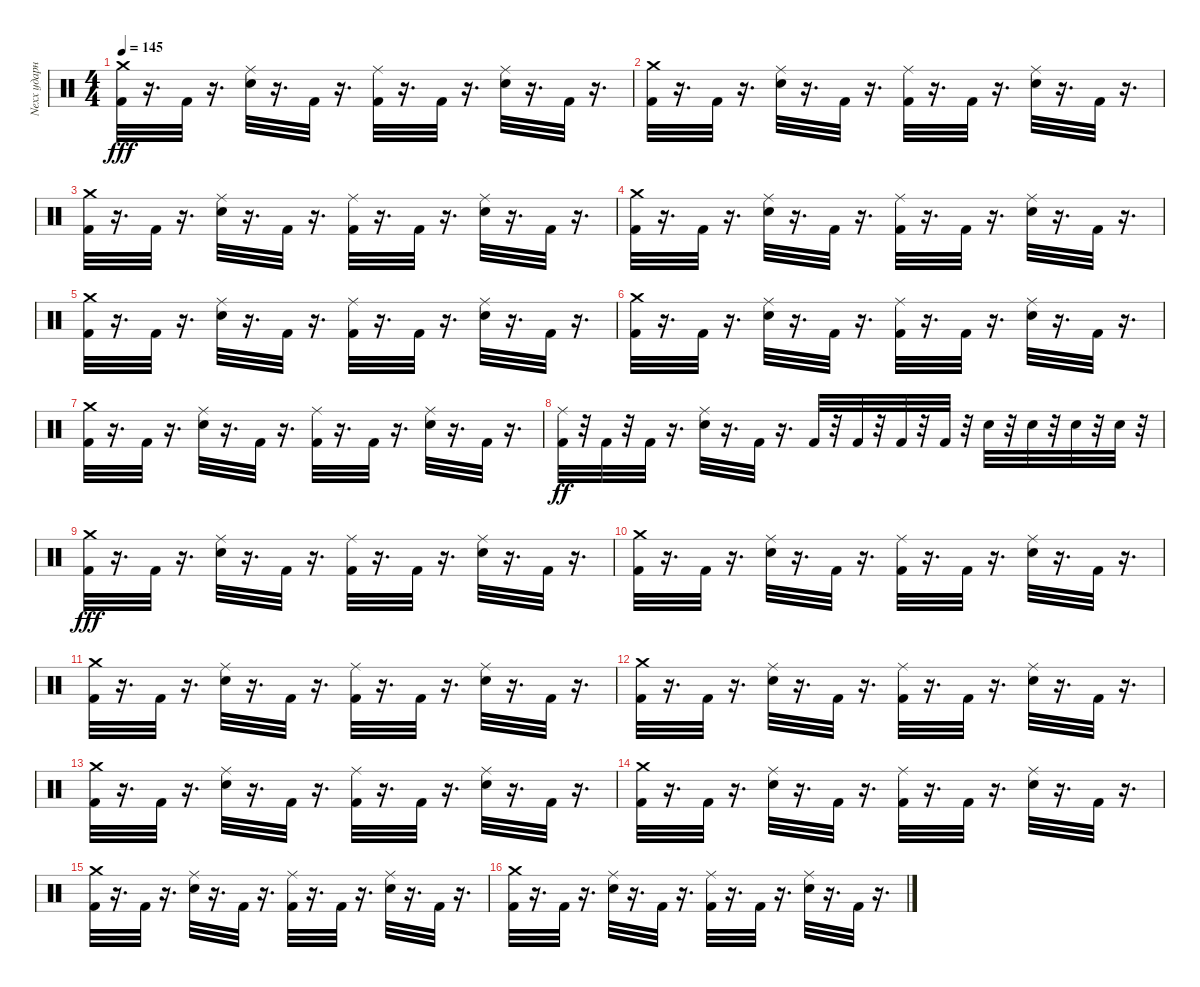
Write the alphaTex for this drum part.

\track ("Nexx ударные" "Nexx ударн") {instrument percussion}
\staff {score}
\articulation defaults
\ts (4 4)
\tempo 145
\clef neutral
\ks c
("Crash medium (hit)" "Kick (hit) 2").32{dy fff} r.16{d} "Kick (hit) 2".32 r.16{d} ("Ride (middle)" "Snare (hit) 2").32 r.16{d} "Kick (hit) 2".32 r.16{d} ("Kick (hit) 2" "Ride (middle)").32 r.16{d} "Kick (hit) 2".32 r.16{d} ("Snare (hit) 2" "Ride (middle)").32 r.16{d} "Kick (hit) 2".32 r.16{d} |
("Crash medium (hit)" "Kick (hit) 2").32 r.16{d} "Kick (hit) 2".32 r.16{d} ("Ride (middle)" "Snare (hit) 2").32 r.16{d} "Kick (hit) 2".32 r.16{d} ("Kick (hit) 2" "Ride (middle)").32 r.16{d} "Kick (hit) 2".32 r.16{d} ("Snare (hit) 2" "Ride (middle)").32 r.16{d} "Kick (hit) 2".32 r.16{d} |
("Crash medium (hit)" "Kick (hit) 2").32 r.16{d} "Kick (hit) 2".32 r.16{d} ("Ride (middle)" "Snare (hit) 2").32 r.16{d} "Kick (hit) 2".32 r.16{d} ("Kick (hit) 2" "Ride (middle)").32 r.16{d} "Kick (hit) 2".32 r.16{d} ("Snare (hit) 2" "Ride (middle)").32 r.16{d} "Kick (hit) 2".32 r.16{d} |
("Crash medium (hit)" "Kick (hit) 2").32 r.16{d} "Kick (hit) 2".32 r.16{d} ("Ride (middle)" "Snare (hit) 2").32 r.16{d} "Kick (hit) 2".32 r.16{d} ("Kick (hit) 2" "Ride (middle)").32 r.16{d} "Kick (hit) 2".32 r.16{d} ("Snare (hit) 2" "Ride (middle)").32 r.16{d} "Kick (hit) 2".32 r.16{d} |
("Crash medium (hit)" "Kick (hit) 2").32 r.16{d} "Kick (hit) 2".32 r.16{d} ("Ride (middle)" "Snare (hit) 2").32 r.16{d} "Kick (hit) 2".32 r.16{d} ("Kick (hit) 2" "Ride (middle)").32 r.16{d} "Kick (hit) 2".32 r.16{d} ("Snare (hit) 2" "Ride (middle)").32 r.16{d} "Kick (hit) 2".32 r.16{d} |
("Crash medium (hit)" "Kick (hit) 2").32 r.16{d} "Kick (hit) 2".32 r.16{d} ("Ride (middle)" "Snare (hit) 2").32 r.16{d} "Kick (hit) 2".32 r.16{d} ("Kick (hit) 2" "Ride (middle)").32 r.16{d} "Kick (hit) 2".32 r.16{d} ("Snare (hit) 2" "Ride (middle)").32 r.16{d} "Kick (hit) 2".32 r.16{d} |
("Crash medium (hit)" "Kick (hit) 2").32 r.16{d} "Kick (hit) 2".32 r.16{d} ("Ride (middle)" "Snare (hit) 2").32 r.16{d} "Kick (hit) 2".32 r.16{d} ("Kick (hit) 2" "Ride (middle)").32 r.16{d} "Kick (hit) 2".32 r.16{d} ("Snare (hit) 2" "Ride (middle)").32 r.16{d} "Kick (hit) 2".32 r.16{d} |
("Ride (middle)" "Kick (hit) 2").32{dy ff} r.32 "Kick (hit) 2".32 r.32 "Kick (hit) 2".32 r.16{d} ("Ride (middle)" "Electric Snare (hit)").32 r.16{d} "Kick (hit) 2".32 r.16{d} "Kick (hit) 2".32 r.32 "Kick (hit) 2".32 r.32 "Kick (hit) 2".32 r.32 "Kick (hit) 2".32 r.32 "Electric Snare (hit)".32 r.32 "Electric Snare (hit)".32 r.32 "Electric Snare (hit)".32 r.32 "Electric Snare (hit)".32 r.32 |
("Crash medium (hit)" "Kick (hit) 2").32{dy fff} r.16{d} "Kick (hit) 2".32 r.16{d} ("Ride (middle)" "Snare (hit) 2").32 r.16{d} "Kick (hit) 2".32 r.16{d} ("Kick (hit) 2" "Ride (middle)").32 r.16{d} "Kick (hit) 2".32 r.16{d} ("Snare (hit) 2" "Ride (middle)").32 r.16{d} "Kick (hit) 2".32 r.16{d} |
("Crash medium (hit)" "Kick (hit) 2").32 r.16{d} "Kick (hit) 2".32 r.16{d} ("Ride (middle)" "Snare (hit) 2").32 r.16{d} "Kick (hit) 2".32 r.16{d} ("Kick (hit) 2" "Ride (middle)").32 r.16{d} "Kick (hit) 2".32 r.16{d} ("Snare (hit) 2" "Ride (middle)").32 r.16{d} "Kick (hit) 2".32 r.16{d} |
("Crash medium (hit)" "Kick (hit) 2").32 r.16{d} "Kick (hit) 2".32 r.16{d} ("Ride (middle)" "Snare (hit) 2").32 r.16{d} "Kick (hit) 2".32 r.16{d} ("Kick (hit) 2" "Ride (middle)").32 r.16{d} "Kick (hit) 2".32 r.16{d} ("Snare (hit) 2" "Ride (middle)").32 r.16{d} "Kick (hit) 2".32 r.16{d} |
("Crash medium (hit)" "Kick (hit) 2").32 r.16{d} "Kick (hit) 2".32 r.16{d} ("Ride (middle)" "Snare (hit) 2").32 r.16{d} "Kick (hit) 2".32 r.16{d} ("Kick (hit) 2" "Ride (middle)").32 r.16{d} "Kick (hit) 2".32 r.16{d} ("Snare (hit) 2" "Ride (middle)").32 r.16{d} "Kick (hit) 2".32 r.16{d} |
("Crash medium (hit)" "Kick (hit) 2").32 r.16{d} "Kick (hit) 2".32 r.16{d} ("Ride (middle)" "Snare (hit) 2").32 r.16{d} "Kick (hit) 2".32 r.16{d} ("Kick (hit) 2" "Ride (middle)").32 r.16{d} "Kick (hit) 2".32 r.16{d} ("Snare (hit) 2" "Ride (middle)").32 r.16{d} "Kick (hit) 2".32 r.16{d} |
("Crash medium (hit)" "Kick (hit) 2").32 r.16{d} "Kick (hit) 2".32 r.16{d} ("Ride (middle)" "Snare (hit) 2").32 r.16{d} "Kick (hit) 2".32 r.16{d} ("Kick (hit) 2" "Ride (middle)").32 r.16{d} "Kick (hit) 2".32 r.16{d} ("Snare (hit) 2" "Ride (middle)").32 r.16{d} "Kick (hit) 2".32 r.16{d} |
("Crash medium (hit)" "Kick (hit) 2").32 r.16{d} "Kick (hit) 2".32 r.16{d} ("Ride (middle)" "Snare (hit) 2").32 r.16{d} "Kick (hit) 2".32 r.16{d} ("Kick (hit) 2" "Ride (middle)").32 r.16{d} "Kick (hit) 2".32 r.16{d} ("Snare (hit) 2" "Ride (middle)").32 r.16{d} "Kick (hit) 2".32 r.16{d} |
("Crash medium (hit)" "Kick (hit) 2").32 r.16{d} "Kick (hit) 2".32 r.16{d} ("Ride (middle)" "Snare (hit) 2").32 r.16{d} "Kick (hit) 2".32 r.16{d} ("Kick (hit) 2" "Ride (middle)").32 r.16{d} "Kick (hit) 2".32 r.16{d} ("Snare (hit) 2" "Ride (middle)").32 r.16{d} "Kick (hit) 2".32 r.16{d}
